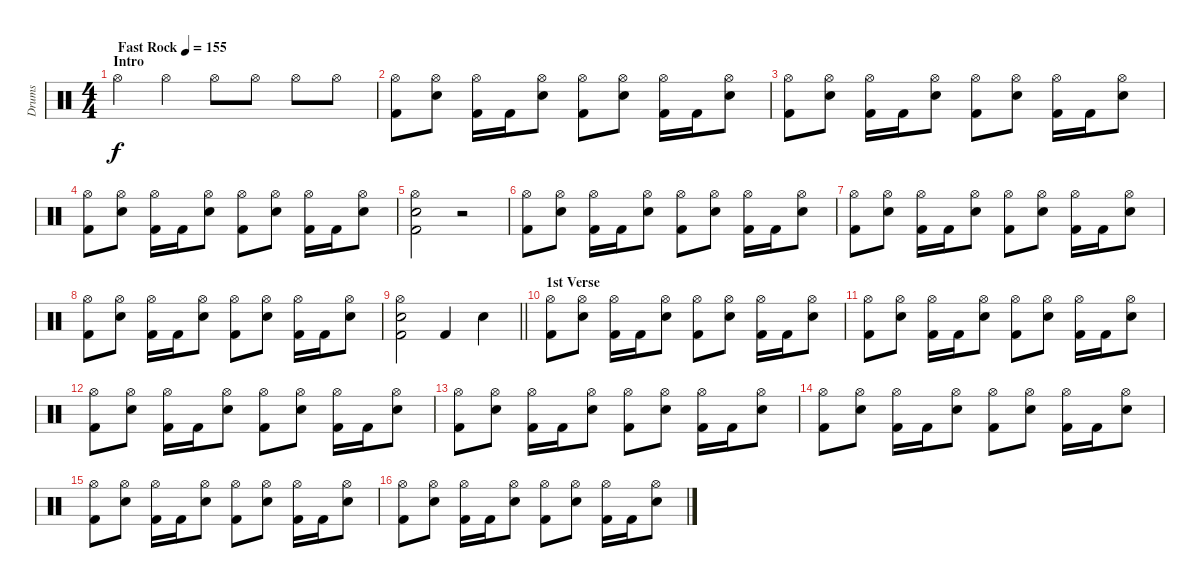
\track ("Drums" "Drums") {instrument percussion}
\staff {score}
\articulation defaults
\ts (4 4)
\section ("" "Intro")
\tempo (155 "Fast Rock")
\clef neutral
\ks c "Hi-Hat (open)".4{dy f} "Hi-Hat (open)".4 "Hi-Hat (open)".8 "Hi-Hat (open)".8 "Hi-Hat (open)".8 "Hi-Hat (open)".8
|
("Hi-Hat (open)" "Kick (hit) 2").8 ("Hi-Hat (open)" "Electric Snare (hit)").8 ("Hi-Hat (open)" "Kick (hit) 2").16 "Kick (hit) 2".16 ("Hi-Hat (open)" "Electric Snare (hit)").8 ("Hi-Hat (open)" "Kick (hit) 2").8 ("Hi-Hat (open)" "Electric Snare (hit)").8 ("Hi-Hat (open)" "Kick (hit) 2").16 "Kick (hit) 2".16 ("Hi-Hat (open)" "Electric Snare (hit)").8 |
("Hi-Hat (open)" "Kick (hit) 2").8 ("Hi-Hat (open)" "Electric Snare (hit)").8 ("Hi-Hat (open)" "Kick (hit) 2").16 "Kick (hit) 2".16 ("Hi-Hat (open)" "Electric Snare (hit)").8 ("Hi-Hat (open)" "Kick (hit) 2").8 ("Hi-Hat (open)" "Electric Snare (hit)").8 ("Hi-Hat (open)" "Kick (hit) 2").16 "Kick (hit) 2".16 ("Hi-Hat (open)" "Electric Snare (hit)").8 |
("Hi-Hat (open)" "Kick (hit) 2").8 ("Hi-Hat (open)" "Electric Snare (hit)").8 ("Hi-Hat (open)" "Kick (hit) 2").16 "Kick (hit) 2".16 ("Hi-Hat (open)" "Electric Snare (hit)").8 ("Hi-Hat (open)" "Kick (hit) 2").8 ("Hi-Hat (open)" "Electric Snare (hit)").8 ("Hi-Hat (open)" "Kick (hit) 2").16 "Kick (hit) 2".16 ("Hi-Hat (open)" "Electric Snare (hit)").8 |
("Hi-Hat (open)" "Electric Snare (hit)" "Kick (hit) 2").2 r.2 |
("Hi-Hat (open)" "Kick (hit) 2").8 ("Hi-Hat (open)" "Electric Snare (hit)").8 ("Hi-Hat (open)" "Kick (hit) 2").16 "Kick (hit) 2".16 ("Hi-Hat (open)" "Electric Snare (hit)").8 ("Hi-Hat (open)" "Kick (hit) 2").8 ("Hi-Hat (open)" "Electric Snare (hit)").8 ("Hi-Hat (open)" "Kick (hit) 2").16 "Kick (hit) 2".16 ("Hi-Hat (open)" "Electric Snare (hit)").8 |
("Hi-Hat (open)" "Kick (hit) 2").8 ("Hi-Hat (open)" "Electric Snare (hit)").8 ("Hi-Hat (open)" "Kick (hit) 2").16 "Kick (hit) 2".16 ("Hi-Hat (open)" "Electric Snare (hit)").8 ("Hi-Hat (open)" "Kick (hit) 2").8 ("Hi-Hat (open)" "Electric Snare (hit)").8 ("Hi-Hat (open)" "Kick (hit) 2").16 "Kick (hit) 2".16 ("Hi-Hat (open)" "Electric Snare (hit)").8 |
("Hi-Hat (open)" "Kick (hit) 2").8 ("Hi-Hat (open)" "Electric Snare (hit)").8 ("Hi-Hat (open)" "Kick (hit) 2").16 "Kick (hit) 2".16 ("Hi-Hat (open)" "Electric Snare (hit)").8 ("Hi-Hat (open)" "Kick (hit) 2").8 ("Hi-Hat (open)" "Electric Snare (hit)").8 ("Hi-Hat (open)" "Kick (hit) 2").16 "Kick (hit) 2".16 ("Hi-Hat (open)" "Electric Snare (hit)").8 |
\barLineRight lightlight
("Hi-Hat (open)" "Electric Snare (hit)" "Kick (hit) 2").2 "Kick (hit) 2".4 "Electric Snare (hit)".4 |
\section ("" "1st Verse")
("Hi-Hat (open)" "Kick (hit) 2").8 ("Hi-Hat (open)" "Electric Snare (hit)").8 ("Hi-Hat (open)" "Kick (hit) 2").16 "Kick (hit) 2".16 ("Hi-Hat (open)" "Electric Snare (hit)").8 ("Hi-Hat (open)" "Kick (hit) 2").8 ("Hi-Hat (open)" "Electric Snare (hit)").8 ("Hi-Hat (open)" "Kick (hit) 2").16 "Kick (hit) 2".16 ("Hi-Hat (open)" "Electric Snare (hit)").8 |
("Hi-Hat (open)" "Kick (hit) 2").8 ("Hi-Hat (open)" "Electric Snare (hit)").8 ("Hi-Hat (open)" "Kick (hit) 2").16 "Kick (hit) 2".16 ("Hi-Hat (open)" "Electric Snare (hit)").8 ("Hi-Hat (open)" "Kick (hit) 2").8 ("Hi-Hat (open)" "Electric Snare (hit)").8 ("Hi-Hat (open)" "Kick (hit) 2").16 "Kick (hit) 2".16 ("Hi-Hat (open)" "Electric Snare (hit)").8 |
("Hi-Hat (open)" "Kick (hit) 2").8 ("Hi-Hat (open)" "Electric Snare (hit)").8 ("Hi-Hat (open)" "Kick (hit) 2").16 "Kick (hit) 2".16 ("Hi-Hat (open)" "Electric Snare (hit)").8 ("Hi-Hat (open)" "Kick (hit) 2").8 ("Hi-Hat (open)" "Electric Snare (hit)").8 ("Hi-Hat (open)" "Kick (hit) 2").16 "Kick (hit) 2".16 ("Hi-Hat (open)" "Electric Snare (hit)").8 |
("Hi-Hat (open)" "Kick (hit) 2").8 ("Hi-Hat (open)" "Electric Snare (hit)").8 ("Hi-Hat (open)" "Kick (hit) 2").16 "Kick (hit) 2".16 ("Hi-Hat (open)" "Electric Snare (hit)").8 ("Hi-Hat (open)" "Kick (hit) 2").8 ("Hi-Hat (open)" "Electric Snare (hit)").8 ("Hi-Hat (open)" "Kick (hit) 2").16 "Kick (hit) 2".16 ("Hi-Hat (open)" "Electric Snare (hit)").8 |
("Hi-Hat (open)" "Kick (hit) 2").8 ("Hi-Hat (open)" "Electric Snare (hit)").8 ("Hi-Hat (open)" "Kick (hit) 2").16 "Kick (hit) 2".16 ("Hi-Hat (open)" "Electric Snare (hit)").8 ("Hi-Hat (open)" "Kick (hit) 2").8 ("Hi-Hat (open)" "Electric Snare (hit)").8 ("Hi-Hat (open)" "Kick (hit) 2").16 "Kick (hit) 2".16 ("Hi-Hat (open)" "Electric Snare (hit)").8 |
("Hi-Hat (open)" "Kick (hit) 2").8 ("Hi-Hat (open)" "Electric Snare (hit)").8 ("Hi-Hat (open)" "Kick (hit) 2").16 "Kick (hit) 2".16 ("Hi-Hat (open)" "Electric Snare (hit)").8 ("Hi-Hat (open)" "Kick (hit) 2").8 ("Hi-Hat (open)" "Electric Snare (hit)").8 ("Hi-Hat (open)" "Kick (hit) 2").16 "Kick (hit) 2".16 ("Hi-Hat (open)" "Electric Snare (hit)").8 |
("Hi-Hat (open)" "Kick (hit) 2").8 ("Hi-Hat (open)" "Electric Snare (hit)").8 ("Hi-Hat (open)" "Kick (hit) 2").16 "Kick (hit) 2".16 ("Hi-Hat (open)" "Electric Snare (hit)").8 ("Hi-Hat (open)" "Kick (hit) 2").8 ("Hi-Hat (open)" "Electric Snare (hit)").8 ("Hi-Hat (open)" "Kick (hit) 2").16 "Kick (hit) 2".16 ("Hi-Hat (open)" "Electric Snare (hit)").8
